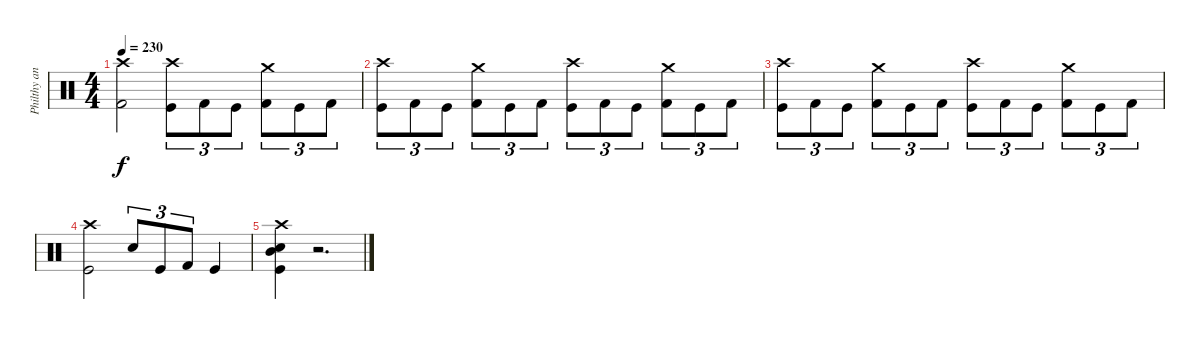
\track ("Philthy animal Taylor" "Philthy an") {instrument percussion}
\staff {score}
\articulation defaults
\ts (4 4)
\tempo 230
\clef neutral
\ks c
("Crash high (hit)" "Kick (hit) 2").2{dy f} ("Crash high (hit)" "Kick (hit)").8{tu (3 2)} "Kick (hit) 2".8{tu (3 2)} "Kick (hit)".8{tu (3 2)} ("Crash medium (hit)" "Kick (hit) 2").8{tu (3 2)} "Kick (hit)".8{tu (3 2)} "Kick (hit) 2".8{tu (3 2)} |
("Crash high (hit)" "Kick (hit)").8{tu (3 2)} "Kick (hit) 2".8{tu (3 2)} "Kick (hit)".8{tu (3 2)} ("Crash medium (hit)" "Kick (hit) 2").8{tu (3 2)} "Kick (hit)".8{tu (3 2)} "Kick (hit) 2".8{tu (3 2)} ("Crash high (hit)" "Kick (hit)").8{tu (3 2)} "Kick (hit) 2".8{tu (3 2)} "Kick (hit)".8{tu (3 2)} ("Crash medium (hit)" "Kick (hit) 2").8{tu (3 2)} "Kick (hit)".8{tu (3 2)} "Kick (hit) 2".8{tu (3 2)} |
("Crash high (hit)" "Kick (hit)").8{tu (3 2)} "Kick (hit) 2".8{tu (3 2)} "Kick (hit)".8{tu (3 2)} ("Crash medium (hit)" "Kick (hit) 2").8{tu (3 2)} "Kick (hit)".8{tu (3 2)} "Kick (hit) 2".8{tu (3 2)} ("Crash high (hit)" "Kick (hit)").8{tu (3 2)} "Kick (hit) 2".8{tu (3 2)} "Kick (hit)".8{tu (3 2)} ("Crash medium (hit)" "Kick (hit) 2").8{tu (3 2)} "Kick (hit)".8{tu (3 2)} "Kick (hit) 2".8{tu (3 2)} |
("Crash high (hit)" "Kick (hit)").2 "Snare (hit) 2".8{tu (3 2)} "Kick (hit)".8{tu (3 2)} "Kick (hit) 2".8{tu (3 2)} "Kick (hit)".4 |
("Crash high (hit)" "Mid Tom (hit)" "Snare (hit) 2" "Kick (hit)").4 r.2{d}
